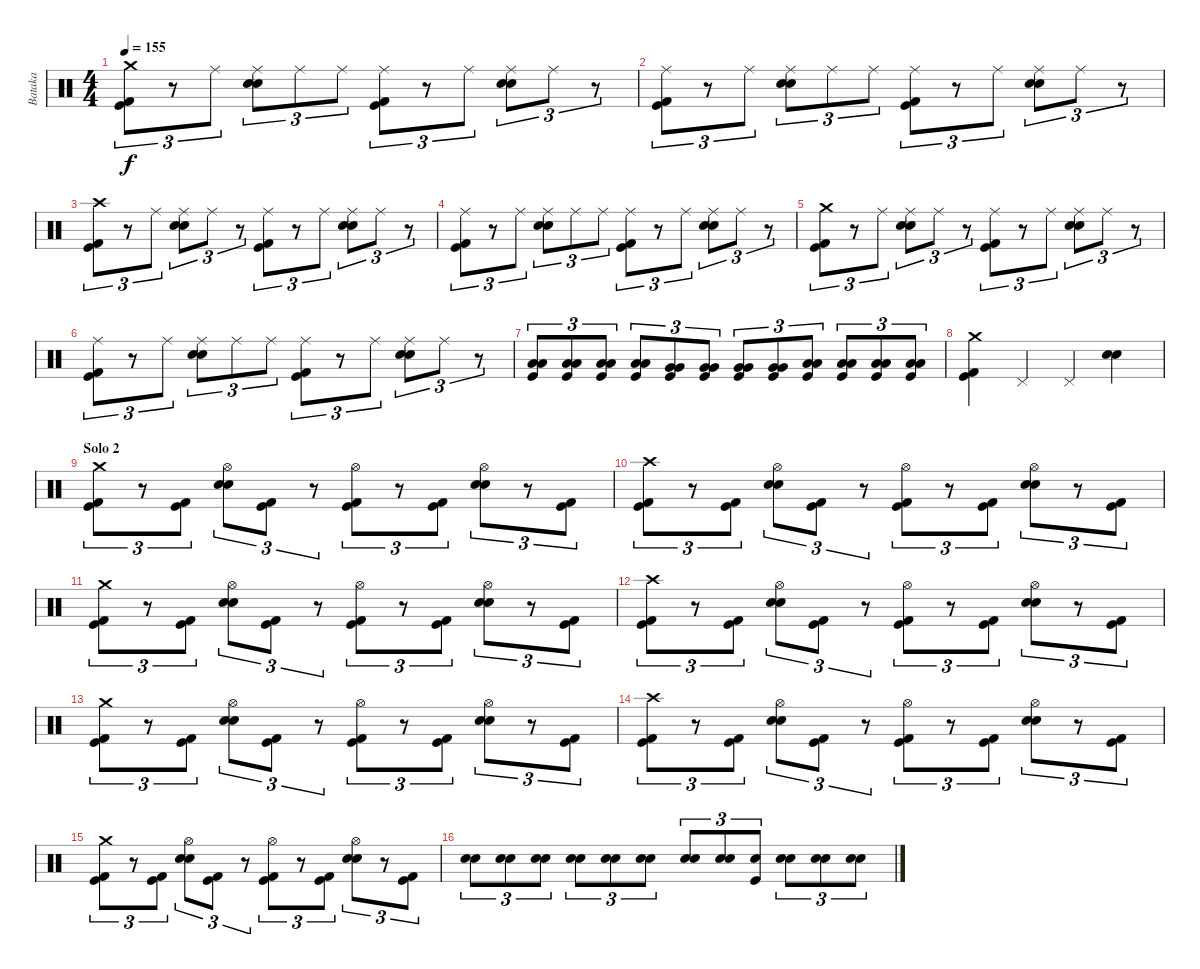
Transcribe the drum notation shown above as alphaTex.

\track ("Bataka" "Bataka") {instrument percussion}
\staff {score}
\articulation defaults
\ts (4 4)
\tempo 155
\clef neutral
\ks c
("Crash medium (hit)" "Kick (hit) 2" "Kick (hit)").8{tu (3 2) dy f} r.8{tu (3 2)} "Ride (middle)".8{tu (3 2)} ("Ride (middle)" "Snare (hit) 2" "Snare (hit) 2").8{tu (3 2)} "Ride (middle)".8{tu (3 2)} "Ride (middle)".8{tu (3 2)} ("Ride (middle)" "Kick (hit) 2" "Kick (hit)").8{tu (3 2)} r.8{tu (3 2)} "Ride (middle)".8{tu (3 2)} ("Ride (middle)" "Snare (hit) 2" "Snare (hit) 2").8{tu (3 2)} "Ride (middle)".8{tu (3 2)} r.8{tu (3 2)} |
("Ride (middle)" "Kick (hit) 2" "Kick (hit)").8{tu (3 2)} r.8{tu (3 2)} "Ride (middle)".8{tu (3 2)} ("Ride (middle)" "Snare (hit) 2" "Snare (hit) 2").8{tu (3 2)} "Ride (middle)".8{tu (3 2)} "Ride (middle)".8{tu (3 2)} ("Ride (middle)" "Kick (hit) 2" "Kick (hit)").8{tu (3 2)} r.8{tu (3 2)} "Ride (middle)".8{tu (3 2)} ("Ride (middle)" "Snare (hit) 2" "Snare (hit) 2").8{tu (3 2)} "Ride (middle)".8{tu (3 2)} r.8{tu (3 2)} |
("Crash high (hit)" "Kick (hit) 2" "Kick (hit)").8{tu (3 2)} r.8{tu (3 2)} "Ride (middle)".8{tu (3 2)} ("Ride (middle)" "Snare (hit) 2" "Snare (hit) 2").8{tu (3 2)} "Ride (middle)".8{tu (3 2)} r.8{tu (3 2)} ("Ride (middle)" "Kick (hit) 2" "Kick (hit)").8{tu (3 2)} r.8{tu (3 2)} "Ride (middle)".8{tu (3 2)} ("Ride (middle)" "Snare (hit) 2" "Snare (hit) 2").8{tu (3 2)} "Ride (middle)".8{tu (3 2)} r.8{tu (3 2)} |
("Ride (middle)" "Kick (hit) 2" "Kick (hit)").8{tu (3 2)} r.8{tu (3 2)} "Ride (middle)".8{tu (3 2)} ("Ride (middle)" "Snare (hit) 2" "Snare (hit) 2").8{tu (3 2)} "Ride (middle)".8{tu (3 2)} "Ride (middle)".8{tu (3 2)} ("Ride (middle)" "Kick (hit) 2" "Kick (hit)").8{tu (3 2)} r.8{tu (3 2)} "Ride (middle)".8{tu (3 2)} ("Ride (middle)" "Snare (hit) 2" "Snare (hit) 2").8{tu (3 2)} "Ride (middle)".8{tu (3 2)} r.8{tu (3 2)} |
("Crash medium (hit)" "Kick (hit) 2" "Kick (hit)").8{tu (3 2)} r.8{tu (3 2)} "Ride (middle)".8{tu (3 2)} ("Ride (middle)" "Snare (hit) 2" "Snare (hit) 2").8{tu (3 2)} "Ride (middle)".8{tu (3 2)} r.8{tu (3 2)} ("Ride (middle)" "Kick (hit) 2" "Kick (hit)").8{tu (3 2)} r.8{tu (3 2)} "Ride (middle)".8{tu (3 2)} ("Ride (middle)" "Snare (hit) 2" "Snare (hit) 2").8{tu (3 2)} "Ride (middle)".8{tu (3 2)} r.8{tu (3 2)} |
("Ride (middle)" "Kick (hit) 2" "Kick (hit)").8{tu (3 2)} r.8{tu (3 2)} "Ride (middle)".8{tu (3 2)} ("Ride (middle)" "Snare (hit) 2" "Snare (hit) 2").8{tu (3 2)} "Ride (middle)".8{tu (3 2)} "Ride (middle)".8{tu (3 2)} ("Ride (middle)" "Kick (hit) 2" "Kick (hit)").8{tu (3 2)} r.8{tu (3 2)} "Ride (middle)".8{tu (3 2)} ("Ride (middle)" "Snare (hit) 2" "Snare (hit) 2").8{tu (3 2)} "Ride (middle)".8{tu (3 2)} r.8{tu (3 2)} |
("Low Tom (hit)" "Low Tom (hit)" "Kick (hit)").8{tu (3 2)} ("Low Tom (hit)" "Low Tom (hit)" "Kick (hit)").8{tu (3 2)} ("Low Tom (hit)" "Low Tom (hit)" "Kick (hit)").8{tu (3 2)} ("Low Tom (hit)" "Low Tom (hit)" "Kick (hit)").8{tu (3 2)} ("Very Low Tom (hit)" "Very Low Tom (hit)" "Kick (hit)").8{tu (3 2)} ("Very Low Tom (hit)" "Very Low Tom (hit)" "Kick (hit)").8{tu (3 2)} ("Very Low Tom (hit)" "Very Low Tom (hit)" "Kick (hit)").8{tu (3 2)} ("Very Low Tom (hit)" "Very Low Tom (hit)" "Kick (hit)").8{tu (3 2)} ("Low Floor Tom (hit)" "Low Floor Tom (hit)" "Kick (hit)").8{tu (3 2)} ("Low Floor Tom (hit)" "Low Floor Tom (hit)" "Kick (hit)").8{tu (3 2)} ("Low Floor Tom (hit)" "Low Floor Tom (hit)" "Kick (hit)").8{tu (3 2)} ("Low Floor Tom (hit)" "Low Floor Tom (hit)" "Kick (hit)").8{tu (3 2)} |
("Crash medium (hit)" "Kick (hit) 2" "Kick (hit)").4 "Pedal Hi-Hat (hit)".4 "Pedal Hi-Hat (hit)".4 ("Snare (hit) 2" "Snare (hit) 2").4 |
\section ("" "Solo 2")
("Crash medium (hit)" "Kick (hit) 2" "Kick (hit)").8{tu (3 2)} r.8{tu (3 2)} ("Kick (hit) 2" "Kick (hit)").8{tu (3 2)} ("Hi-Hat (open)" "Snare (hit) 2" "Snare (hit) 2").8{tu (3 2)} ("Kick (hit)" "Kick (hit) 2").8{tu (3 2)} r.8{tu (3 2)} ("Hi-Hat (open)" "Kick (hit) 2" "Kick (hit)").8{tu (3 2)} r.8{tu (3 2)} ("Kick (hit) 2" "Kick (hit)").8{tu (3 2)} ("Hi-Hat (open)" "Snare (hit) 2" "Snare (hit) 2").8{tu (3 2)} r.8{tu (3 2)} ("Kick (hit) 2" "Kick (hit)").8{tu (3 2)} |
("Crash high (hit)" "Kick (hit) 2" "Kick (hit)").8{tu (3 2)} r.8{tu (3 2)} ("Kick (hit) 2" "Kick (hit)").8{tu (3 2)} ("Hi-Hat (open)" "Snare (hit) 2" "Snare (hit) 2").8{tu (3 2)} ("Kick (hit) 2" "Kick (hit)").8{tu (3 2)} r.8{tu (3 2)} ("Hi-Hat (open)" "Kick (hit) 2" "Kick (hit)").8{tu (3 2)} r.8{tu (3 2)} ("Kick (hit) 2" "Kick (hit)").8{tu (3 2)} ("Hi-Hat (open)" "Snare (hit) 2" "Snare (hit) 2").8{tu (3 2)} r.8{tu (3 2)} ("Kick (hit) 2" "Kick (hit)").8{tu (3 2)} |
("Crash medium (hit)" "Kick (hit) 2" "Kick (hit)").8{tu (3 2)} r.8{tu (3 2)} ("Kick (hit) 2" "Kick (hit)").8{tu (3 2)} ("Hi-Hat (open)" "Snare (hit) 2" "Snare (hit) 2").8{tu (3 2)} ("Kick (hit) 2" "Kick (hit)").8{tu (3 2)} r.8{tu (3 2)} ("Hi-Hat (open)" "Kick (hit) 2" "Kick (hit)").8{tu (3 2)} r.8{tu (3 2)} ("Kick (hit) 2" "Kick (hit)").8{tu (3 2)} ("Hi-Hat (open)" "Snare (hit) 2" "Snare (hit) 2").8{tu (3 2)} r.8{tu (3 2)} ("Kick (hit) 2" "Kick (hit)").8{tu (3 2)} |
("Crash high (hit)" "Kick (hit) 2" "Kick (hit)").8{tu (3 2)} r.8{tu (3 2)} ("Kick (hit) 2" "Kick (hit)").8{tu (3 2)} ("Hi-Hat (open)" "Snare (hit) 2" "Snare (hit) 2").8{tu (3 2)} ("Kick (hit) 2" "Kick (hit)").8{tu (3 2)} r.8{tu (3 2)} ("Hi-Hat (open)" "Kick (hit) 2" "Kick (hit)").8{tu (3 2)} r.8{tu (3 2)} ("Kick (hit) 2" "Kick (hit)").8{tu (3 2)} ("Hi-Hat (open)" "Snare (hit) 2" "Snare (hit) 2").8{tu (3 2)} r.8{tu (3 2)} ("Kick (hit) 2" "Kick (hit)").8{tu (3 2)} |
("Crash medium (hit)" "Kick (hit) 2" "Kick (hit)").8{tu (3 2)} r.8{tu (3 2)} ("Kick (hit) 2" "Kick (hit)").8{tu (3 2)} ("Hi-Hat (open)" "Snare (hit) 2" "Snare (hit) 2").8{tu (3 2)} ("Kick (hit) 2" "Kick (hit)").8{tu (3 2)} r.8{tu (3 2)} ("Hi-Hat (open)" "Kick (hit) 2" "Kick (hit)").8{tu (3 2)} r.8{tu (3 2)} ("Kick (hit) 2" "Kick (hit)").8{tu (3 2)} ("Hi-Hat (open)" "Snare (hit) 2" "Snare (hit) 2").8{tu (3 2)} r.8{tu (3 2)} ("Kick (hit) 2" "Kick (hit)").8{tu (3 2)} |
("Crash high (hit)" "Kick (hit) 2" "Kick (hit)").8{tu (3 2)} r.8{tu (3 2)} ("Kick (hit) 2" "Kick (hit)").8{tu (3 2)} ("Hi-Hat (open)" "Snare (hit) 2" "Snare (hit) 2").8{tu (3 2)} ("Kick (hit) 2" "Kick (hit)").8{tu (3 2)} r.8{tu (3 2)} ("Hi-Hat (open)" "Kick (hit) 2" "Kick (hit)").8{tu (3 2)} r.8{tu (3 2)} ("Kick (hit) 2" "Kick (hit)").8{tu (3 2)} ("Hi-Hat (open)" "Snare (hit) 2" "Snare (hit) 2").8{tu (3 2)} r.8{tu (3 2)} ("Kick (hit) 2" "Kick (hit)").8{tu (3 2)} |
("Crash medium (hit)" "Kick (hit) 2" "Kick (hit)").8{tu (3 2)} r.8{tu (3 2)} ("Kick (hit) 2" "Kick (hit)").8{tu (3 2)} ("Hi-Hat (open)" "Snare (hit) 2" "Snare (hit) 2").8{tu (3 2)} ("Kick (hit) 2" "Kick (hit)").8{tu (3 2)} r.8{tu (3 2)} ("Hi-Hat (open)" "Kick (hit) 2" "Kick (hit)").8{tu (3 2)} r.8{tu (3 2)} ("Kick (hit) 2" "Kick (hit)").8{tu (3 2)} ("Hi-Hat (open)" "Snare (hit) 2" "Snare (hit) 2").8{tu (3 2)} r.8{tu (3 2)} ("Kick (hit) 2" "Kick (hit)").8{tu (3 2)} |
("Snare (hit) 2" "Snare (hit) 2").8{tu (3 2)} ("Snare (hit) 2" "Snare (hit) 2").8{tu (3 2)} ("Snare (hit) 2" "Snare (hit) 2").8{tu (3 2)} ("Snare (hit) 2" "Snare (hit) 2").8{tu (3 2)} ("Snare (hit) 2" "Snare (hit) 2").8{tu (3 2)} ("Snare (hit) 2" "Snare (hit) 2").8{tu (3 2)} ("Snare (hit) 2" "Snare (hit) 2").8{tu (3 2)} ("Snare (hit) 2" "Snare (hit) 2").8{tu (3 2)} ("Snare (hit) 2" "Kick (hit)").8{tu (3 2)} ("Snare (hit) 2" "Snare (hit) 2").8{tu (3 2)} ("Snare (hit) 2" "Snare (hit) 2").8{tu (3 2)} ("Snare (hit) 2" "Snare (hit) 2").8{tu (3 2)}
